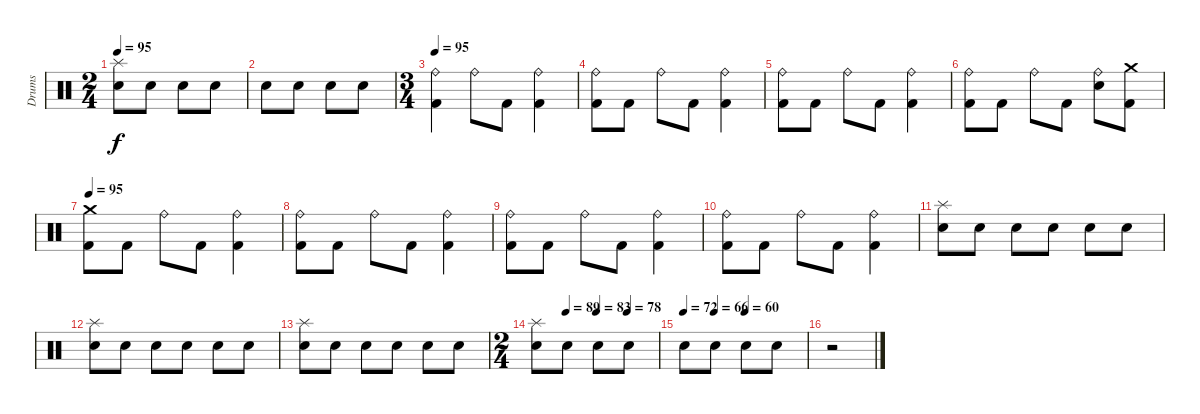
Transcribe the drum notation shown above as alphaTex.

\track ("Drums" "Drums") {instrument percussion}
\staff {score}
\articulation defaults
\ts (2 4)
\tempo 95
\clef neutral
\ks c
("Electric Snare (hit)" "Splash (hit)").8{dy f} "Electric Snare (hit)".8{volume 6} "Electric Snare (hit)".8{volume 7} "Electric Snare (hit)".8{volume 8} |
"Electric Snare (hit)".8{volume 10} "Electric Snare (hit)".8{volume 12} "Electric Snare (hit)".8{volume 13} "Electric Snare (hit)".8 |
\ts (3 4)
\tempo 95
("Ride (bell)" "Kick (hit) 2").4 "Ride (bell)".8 "Kick (hit) 2".8 ("Ride (bell)" "Kick (hit) 2").4 |
("Ride (bell)" "Kick (hit) 2").8 "Kick (hit) 2".8 "Ride (bell)".8 "Kick (hit) 2".8 ("Ride (bell)" "Kick (hit) 2").4 |
("Ride (bell)" "Kick (hit) 2").8 "Kick (hit) 2".8 "Ride (bell)".8 "Kick (hit) 2".8 ("Ride (bell)" "Kick (hit) 2").4 |
("Ride (bell)" "Kick (hit) 2").8 "Kick (hit) 2".8 "Ride (bell)".8 "Kick (hit) 2".8 ("Electric Snare (hit)" "Ride (bell)").8 ("Crash medium (hit)" "Kick (hit) 2").8 |
\tempo 95
("Crash medium (hit)" "Kick (hit) 2").8 "Kick (hit) 2".8 "Ride (bell)".8 "Kick (hit) 2".8 ("Ride (bell)" "Kick (hit) 2").4 |
("Ride (bell)" "Kick (hit) 2").8 "Kick (hit) 2".8 "Ride (bell)".8 "Kick (hit) 2".8 ("Ride (bell)" "Kick (hit) 2").4 |
("Ride (bell)" "Kick (hit) 2").8 "Kick (hit) 2".8 "Ride (bell)".8 "Kick (hit) 2".8 ("Ride (bell)" "Kick (hit) 2").4 |
("Ride (bell)" "Kick (hit) 2").8 "Kick (hit) 2".8 "Ride (bell)".8 "Kick (hit) 2".8 ("Ride (bell)" "Kick (hit) 2").4 |
("Electric Snare (hit)" "Splash (hit)").8 "Electric Snare (hit)".8{volume 6} "Electric Snare (hit)".8{volume 7} "Electric Snare (hit)".8{volume 8} "Electric Snare (hit)".8{volume 10} "Electric Snare (hit)".8{volume 12} |
("Electric Snare (hit)" "Splash (hit)").8{volume 13} "Electric Snare (hit)".8{volume 6} "Electric Snare (hit)".8{volume 7} "Electric Snare (hit)".8{volume 8} "Electric Snare (hit)".8{volume 10} "Electric Snare (hit)".8{volume 12} |
("Electric Snare (hit)" "Splash (hit)").8{volume 13} "Electric Snare (hit)".8{volume 6} "Electric Snare (hit)".8{volume 7} "Electric Snare (hit)".8{volume 8} "Electric Snare (hit)".8{volume 10} "Electric Snare (hit)".8{volume 12} |
\ts (2 4)
\tempo (89 0.25)
\tempo (83 0.5)
\tempo (78 0.75)
("Electric Snare (hit)" "Splash (hit)").8{volume 13} "Electric Snare (hit)".8{volume 6} "Electric Snare (hit)".8{volume 7} "Electric Snare (hit)".8{volume 10} |
\tempo 72
\tempo (66 0.25)
\tempo (60 0.5)
"Electric Snare (hit)".8{volume 13} "Electric Snare (hit)".8 "Electric Snare (hit)".8 "Electric Snare (hit)".8 |
r.2
